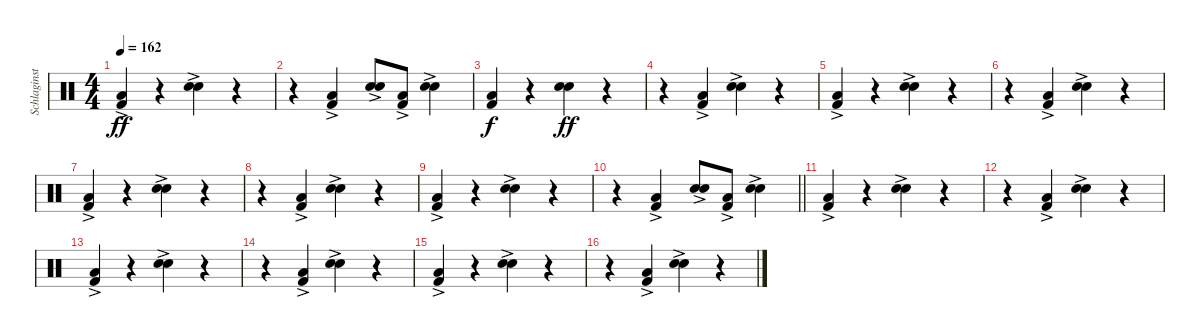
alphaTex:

\track ("Schlaginstrumente - Auswahl" "Schlaginst") {instrument percussion}
\staff {score}
\articulation defaults
\ts (4 4)
\tempo 162
\clef neutral
\ks c
("Kick (hit) 2"{ac} "Low Floor Tom (hit)").4{dy ff} r.4 ("Hand Clap (hit)" "Electric Snare (hit)"{ac}).4 r.4 |
r.4 ("Low Floor Tom (hit)" "Kick (hit) 2"{ac}).4 ("Hand Clap (hit)" "Electric Snare (hit)"{ac}).8 ("Low Floor Tom (hit)" "Kick (hit) 2"{ac}).8 ("Hand Clap (hit)" "Electric Snare (hit)"{ac}).4 |
("Low Floor Tom (hit)" "Kick (hit) 2").4{dy f} r.4 ("Hand Clap (hit)" "Electric Snare (hit)").4{dy ff} r.4 |
r.4 ("Low Floor Tom (hit)" "Kick (hit) 2"{ac}).4 ("Hand Clap (hit)" "Electric Snare (hit)"{ac}).4 r.4 |
("Low Floor Tom (hit)" "Kick (hit) 2"{ac}).4 r.4 ("Hand Clap (hit)" "Electric Snare (hit)"{ac}).4 r.4 |
r.4 ("Low Floor Tom (hit)" "Kick (hit) 2"{ac}).4 ("Hand Clap (hit)" "Electric Snare (hit)"{ac}).4 r.4 |
("Low Floor Tom (hit)" "Kick (hit) 2"{ac}).4 r.4 ("Hand Clap (hit)" "Electric Snare (hit)"{ac}).4 r.4 |
r.4 ("Low Floor Tom (hit)" "Kick (hit) 2"{ac}).4 ("Hand Clap (hit)" "Electric Snare (hit)"{ac}).4 r.4 |
("Kick (hit) 2"{ac} "Low Floor Tom (hit)").4 r.4 ("Hand Clap (hit)" "Electric Snare (hit)"{ac}).4 r.4 |
\barLineRight lightlight
r.4 ("Low Floor Tom (hit)" "Kick (hit) 2"{ac}).4 ("Hand Clap (hit)" "Electric Snare (hit)"{ac}).8 ("Low Floor Tom (hit)" "Kick (hit) 2"{ac}).8 ("Hand Clap (hit)" "Electric Snare (hit)"{ac}).4 |
("Low Floor Tom (hit)" "Kick (hit) 2"{ac}).4 r.4 ("Hand Clap (hit)" "Electric Snare (hit)"{ac}).4 r.4 |
r.4 ("Low Floor Tom (hit)" "Kick (hit) 2"{ac}).4 ("Hand Clap (hit)" "Electric Snare (hit)"{ac}).4 r.4 |
("Low Floor Tom (hit)" "Kick (hit) 2"{ac}).4 r.4 ("Hand Clap (hit)" "Electric Snare (hit)"{ac}).4 r.4 |
r.4 ("Low Floor Tom (hit)" "Kick (hit) 2"{ac}).4 ("Hand Clap (hit)" "Electric Snare (hit)"{ac}).4 r.4 |
("Low Floor Tom (hit)" "Kick (hit) 2"{ac}).4 r.4 ("Hand Clap (hit)" "Electric Snare (hit)"{ac}).4 r.4 |
r.4 ("Low Floor Tom (hit)" "Kick (hit) 2"{ac}).4 ("Hand Clap (hit)" "Electric Snare (hit)"{ac}).4 r.4
